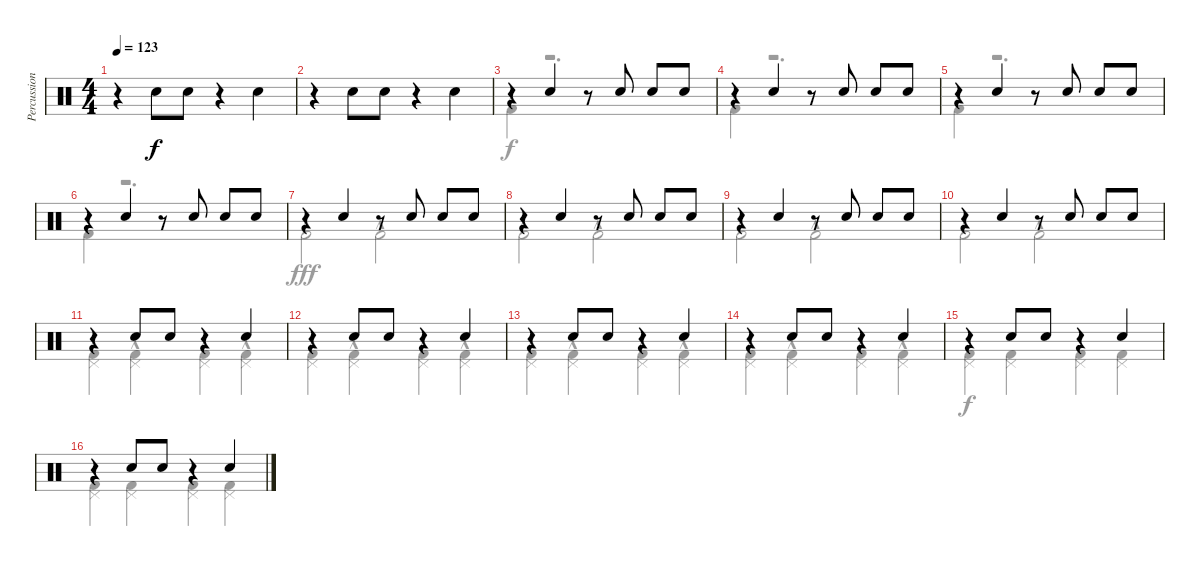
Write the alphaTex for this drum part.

\track ("Percussion" "Percussion") {instrument percussion}
\staff {score}
\articulation defaults
\voice
\ts (4 4)
\tempo 123
\clef neutral
\ks c
r.4{dy f} "Hand Clap (hit)".8 "Hand Clap (hit)".8 r.4 "Hand Clap (hit)".4 |
r.4 "Hand Clap (hit)".8 "Hand Clap (hit)".8 r.4 "Hand Clap (hit)".4 |
r.4 "Hand Clap (hit)".4 r.8 "Hand Clap (hit)".8 "Hand Clap (hit)".8 "Hand Clap (hit)".8 |
r.4 "Hand Clap (hit)".4 r.8 "Hand Clap (hit)".8 "Hand Clap (hit)".8 "Hand Clap (hit)".8 |
r.4 "Hand Clap (hit)".4 r.8 "Hand Clap (hit)".8 "Hand Clap (hit)".8 "Hand Clap (hit)".8 |
r.4 "Hand Clap (hit)".4 r.8 "Hand Clap (hit)".8 "Hand Clap (hit)".8 "Hand Clap (hit)".8 |
r.4 "Hand Clap (hit)".4 r.8 "Hand Clap (hit)".8 "Hand Clap (hit)".8 "Hand Clap (hit)".8 |
r.4 "Hand Clap (hit)".4 r.8 "Hand Clap (hit)".8 "Hand Clap (hit)".8 "Hand Clap (hit)".8 |
r.4 "Hand Clap (hit)".4 r.8 "Hand Clap (hit)".8 "Hand Clap (hit)".8 "Hand Clap (hit)".8 |
r.4 "Hand Clap (hit)".4 r.8 "Hand Clap (hit)".8 "Hand Clap (hit)".8 "Hand Clap (hit)".8 |
r.4 "Hand Clap (hit)".8 "Hand Clap (hit)".8 r.4 "Hand Clap (hit)".4 |
r.4 "Hand Clap (hit)".8 "Hand Clap (hit)".8 r.4 "Hand Clap (hit)".4 |
r.4 "Hand Clap (hit)".8 "Hand Clap (hit)".8 r.4 "Hand Clap (hit)".4 |
r.4 "Hand Clap (hit)".8 "Hand Clap (hit)".8 r.4 "Hand Clap (hit)".4 |
r.4 "Hand Clap (hit)".8 "Hand Clap (hit)".8 r.4 "Hand Clap (hit)".4 |
r.4 "Hand Clap (hit)".8 "Hand Clap (hit)".8 r.4 "Hand Clap (hit)".4
\voice
\clef neutral
\ottava regular
\simile none
\ks c
|
|
"Kick (hit) 2"{hac}.4 r.2{d} |
"Kick (hit) 2"{hac}.4 r.2{d} |
"Kick (hit) 2"{hac}.4 r.2{d} |
"Kick (hit) 2".4{dy f} r.2{d} |
"Kick (hit) 2"{hac}.2{dy fff} "Kick (hit) 2"{hac}.2 |
"Kick (hit) 2"{hac}.2 "Kick (hit) 2"{hac}.2 |
"Kick (hit) 2"{hac}.2 "Kick (hit) 2"{hac}.2 |
"Kick (hit) 2"{hac}.2 "Kick (hit) 2"{hac}.2 |
("Pedal Hi-Hat (hit)" "Kick (hit) 2"{hac}).4 ("Pedal Hi-Hat (hit)" "Kick (hit) 2"{hac}).4 ("Pedal Hi-Hat (hit)" "Kick (hit) 2"{hac}).4 ("Pedal Hi-Hat (hit)" "Kick (hit) 2"{hac}).4 |
("Pedal Hi-Hat (hit)" "Kick (hit) 2"{hac}).4 ("Pedal Hi-Hat (hit)" "Kick (hit) 2"{hac}).4 ("Pedal Hi-Hat (hit)" "Kick (hit) 2"{hac}).4 ("Pedal Hi-Hat (hit)" "Kick (hit) 2"{hac}).4 |
("Pedal Hi-Hat (hit)" "Kick (hit) 2"{hac}).4 ("Pedal Hi-Hat (hit)" "Kick (hit) 2"{hac}).4 ("Pedal Hi-Hat (hit)" "Kick (hit) 2"{hac}).4 ("Pedal Hi-Hat (hit)" "Kick (hit) 2"{hac}).4 |
("Pedal Hi-Hat (hit)" "Kick (hit) 2"{hac}).4 ("Pedal Hi-Hat (hit)" "Kick (hit) 2"{hac}).4 ("Pedal Hi-Hat (hit)" "Kick (hit) 2"{hac}).4 ("Pedal Hi-Hat (hit)" "Kick (hit) 2"{hac}).4 |
("Pedal Hi-Hat (hit)" "Kick (hit) 2").4{dy f} ("Pedal Hi-Hat (hit)" "Kick (hit) 2").4 ("Pedal Hi-Hat (hit)" "Kick (hit) 2").4 ("Pedal Hi-Hat (hit)" "Kick (hit) 2").4 |
("Pedal Hi-Hat (hit)" "Kick (hit) 2").4 ("Pedal Hi-Hat (hit)" "Kick (hit) 2").4 ("Pedal Hi-Hat (hit)" "Kick (hit) 2").4 ("Pedal Hi-Hat (hit)" "Kick (hit) 2").4
